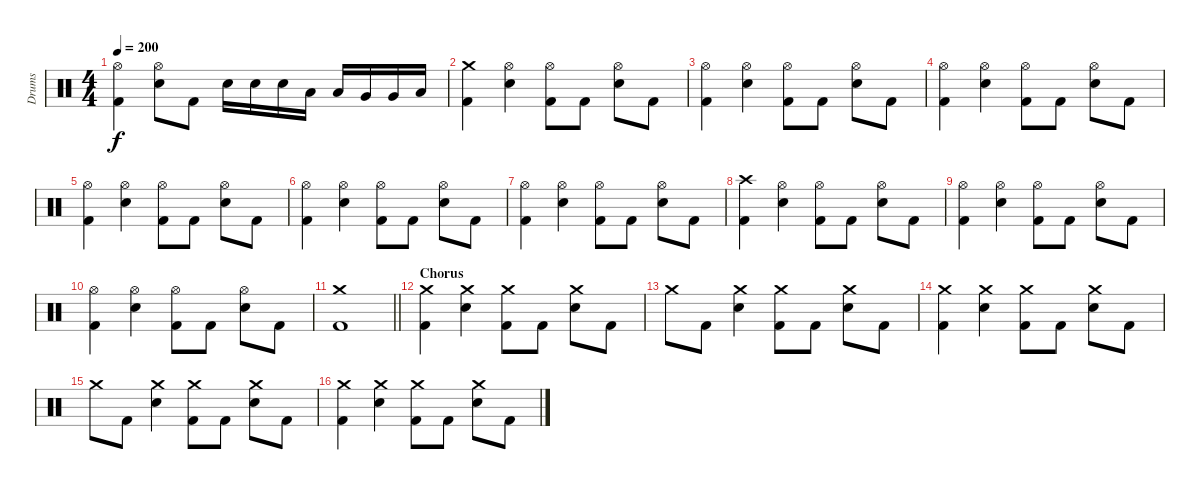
\track ("Drums" "Drums") {instrument percussion}
\staff {score}
\articulation defaults
\ts (4 4)
\tempo 200
\clef neutral
\ks c
("Hi-Hat (open)" "Kick (hit) 2").4{dy f} ("Hi-Hat (open)" "Electric Snare (hit)").8 "Kick (hit) 2".8 "Electric Snare (hit)".16 "Electric Snare (hit)".16 "Electric Snare (hit)".16 "Low Tom (hit)".16 "Low Tom (hit)".16 "Very Low Tom (hit)".16 "Very Low Tom (hit)".16 "Low Floor Tom (hit)".16 |
("Crash medium (hit)" "Kick (hit) 2").4 ("Hi-Hat (open)" "Electric Snare (hit)").4 ("Hi-Hat (open)" "Kick (hit) 2").8 "Kick (hit) 2".8 ("Hi-Hat (open)" "Electric Snare (hit)").8 "Kick (hit) 2".8 |
("Hi-Hat (open)" "Kick (hit) 2").4 ("Hi-Hat (open)" "Electric Snare (hit)").4 ("Hi-Hat (open)" "Kick (hit) 2").8 "Kick (hit) 2".8 ("Hi-Hat (open)" "Electric Snare (hit)").8 "Kick (hit) 2".8 |
("Hi-Hat (open)" "Kick (hit) 2").4 ("Hi-Hat (open)" "Electric Snare (hit)").4 ("Hi-Hat (open)" "Kick (hit) 2").8 "Kick (hit) 2".8 ("Hi-Hat (open)" "Electric Snare (hit)").8 "Kick (hit) 2".8 |
("Hi-Hat (open)" "Kick (hit) 2").4 ("Hi-Hat (open)" "Electric Snare (hit)").4 ("Hi-Hat (open)" "Kick (hit) 2").8 "Kick (hit) 2".8 ("Hi-Hat (open)" "Electric Snare (hit)").8 "Kick (hit) 2".8 |
("Hi-Hat (open)" "Kick (hit) 2").4 ("Hi-Hat (open)" "Electric Snare (hit)").4 ("Hi-Hat (open)" "Kick (hit) 2").8 "Kick (hit) 2".8 ("Hi-Hat (open)" "Electric Snare (hit)").8 "Kick (hit) 2".8 |
("Hi-Hat (open)" "Kick (hit) 2").4 ("Hi-Hat (open)" "Electric Snare (hit)").4 ("Hi-Hat (open)" "Kick (hit) 2").8 "Kick (hit) 2".8 ("Hi-Hat (open)" "Electric Snare (hit)").8 "Kick (hit) 2".8 |
("Crash high (hit)" "Kick (hit) 2").4 ("Hi-Hat (open)" "Electric Snare (hit)").4 ("Hi-Hat (open)" "Kick (hit) 2").8 "Kick (hit) 2".8 ("Hi-Hat (open)" "Electric Snare (hit)").8 "Kick (hit) 2".8 |
("Hi-Hat (open)" "Kick (hit) 2").4 ("Hi-Hat (open)" "Electric Snare (hit)").4 ("Hi-Hat (open)" "Kick (hit) 2").8 "Kick (hit) 2".8 ("Hi-Hat (open)" "Electric Snare (hit)").8 "Kick (hit) 2".8 |
("Hi-Hat (open)" "Kick (hit) 2").4 ("Hi-Hat (open)" "Electric Snare (hit)").4 ("Hi-Hat (open)" "Kick (hit) 2").8 "Kick (hit) 2".8 ("Hi-Hat (open)" "Electric Snare (hit)").8 "Kick (hit) 2".8 |
\barLineRight lightlight
("Crash medium (hit)" "Kick (hit) 2").1 |
\section ("" "Chorus")
("Crash medium (hit)" "Kick (hit) 2").4 ("Crash medium (hit)" "Electric Snare (hit)").4 ("Crash medium (hit)" "Kick (hit) 2").8 "Kick (hit) 2".8 ("Crash medium (hit)" "Electric Snare (hit)").8 "Kick (hit) 2".8 |
"Crash medium (hit)".8 "Kick (hit) 2".8 ("Crash medium (hit)" "Electric Snare (hit)").4 ("Crash medium (hit)" "Kick (hit) 2").8 "Kick (hit) 2".8 ("Crash medium (hit)" "Electric Snare (hit)").8 "Kick (hit) 2".8 |
("Crash medium (hit)" "Kick (hit) 2").4 ("Crash medium (hit)" "Electric Snare (hit)").4 ("Crash medium (hit)" "Kick (hit) 2").8 "Kick (hit) 2".8 ("Crash medium (hit)" "Electric Snare (hit)").8 "Kick (hit) 2".8 |
"Crash medium (hit)".8 "Kick (hit) 2".8 ("Crash medium (hit)" "Electric Snare (hit)").4 ("Crash medium (hit)" "Kick (hit) 2").8 "Kick (hit) 2".8 ("Crash medium (hit)" "Electric Snare (hit)").8 "Kick (hit) 2".8 |
("Crash medium (hit)" "Kick (hit) 2").4 ("Crash medium (hit)" "Electric Snare (hit)").4 ("Crash medium (hit)" "Kick (hit) 2").8 "Kick (hit) 2".8 ("Crash medium (hit)" "Electric Snare (hit)").8 "Kick (hit) 2".8
